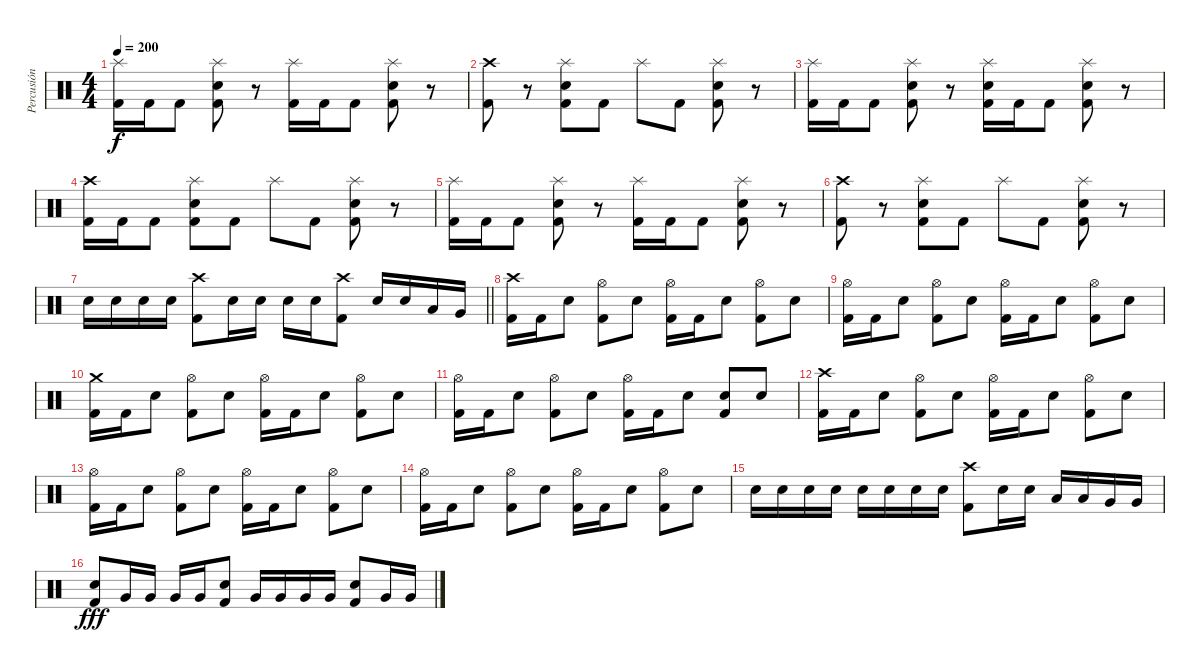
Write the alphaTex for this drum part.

\track ("Percusión" "Percusión") {instrument percussion}
\staff {score}
\articulation defaults
\ts (4 4)
\tempo 200
\clef neutral
\ks c
("Splash (hit)" "Kick (hit) 2").16{dy f} "Kick (hit) 2".16 "Kick (hit) 2".8 ("Splash (hit)" "Electric Snare (hit)" "Kick (hit) 2").8 r.8 ("Splash (hit)" "Kick (hit) 2").16 "Kick (hit) 2".16 "Kick (hit) 2".8 ("Splash (hit)" "Electric Snare (hit)" "Kick (hit) 2").8 r.8 |
("Crash high (hit)" "Kick (hit) 2").8 r.8 ("Splash (hit)" "Electric Snare (hit)" "Kick (hit) 2").8 "Kick (hit) 2".8 "Splash (hit)".8 "Kick (hit) 2".8 ("Splash (hit)" "Electric Snare (hit)" "Kick (hit) 2").8 r.8 |
("Splash (hit)" "Kick (hit) 2").16 "Kick (hit) 2".16 "Kick (hit) 2".8 ("Splash (hit)" "Electric Snare (hit)" "Kick (hit) 2").8 r.8 ("Splash (hit)" "Electric Snare (hit)" "Kick (hit) 2").16 "Kick (hit) 2".16 "Kick (hit) 2".8 ("Splash (hit)" "Electric Snare (hit)" "Kick (hit) 2").8 r.8 |
("Crash high (hit)" "Kick (hit) 2").16 "Kick (hit) 2".16 "Kick (hit) 2".8 ("Splash (hit)" "Electric Snare (hit)" "Kick (hit) 2").8 "Kick (hit) 2".8 "Splash (hit)".8 "Kick (hit) 2".8 ("Splash (hit)" "Electric Snare (hit)" "Kick (hit) 2").8 r.8 |
("Splash (hit)" "Kick (hit) 2").16 "Kick (hit) 2".16 "Kick (hit) 2".8 ("Splash (hit)" "Electric Snare (hit)" "Kick (hit) 2").8 r.8 ("Splash (hit)" "Kick (hit) 2").16 "Kick (hit) 2".16 "Kick (hit) 2".8 ("Splash (hit)" "Electric Snare (hit)" "Kick (hit) 2").8 r.8 |
("Crash high (hit)" "Kick (hit) 2").8 r.8 ("Splash (hit)" "Electric Snare (hit)" "Kick (hit) 2").8 "Kick (hit) 2".8 "Splash (hit)".8 "Kick (hit) 2".8 ("Splash (hit)" "Electric Snare (hit)" "Kick (hit) 2").8 r.8 |
\barLineRight lightlight "Electric Snare (hit)".16 "Electric Snare (hit)".16 "Electric Snare (hit)".16 "Electric Snare (hit)".16
("Crash high (hit)" "Kick (hit) 2").8 "Electric Snare (hit)".16 "Electric Snare (hit)".16 "Electric Snare (hit)".16 "Electric Snare (hit)".16 ("Crash high (hit)" "Kick (hit) 2").8 "Electric Snare (hit)".16 "Electric Snare (hit)".16 "Low Tom (hit)".16 "Very Low Tom (hit)".16 |
\section ("" "")
("Crash high (hit)" "Kick (hit) 2").16 "Kick (hit) 2".16 "Electric Snare (hit)".8 ("Hi-Hat (open)" "Kick (hit) 2").8 "Electric Snare (hit)".8 ("Hi-Hat (open)" "Kick (hit) 2").16 "Kick (hit) 2".16 "Electric Snare (hit)".8 ("Hi-Hat (open)" "Kick (hit) 2").8 "Electric Snare (hit)".8 |
("Hi-Hat (open)" "Kick (hit) 2").16 "Kick (hit) 2".16 "Electric Snare (hit)".8 ("Hi-Hat (open)" "Kick (hit) 2").8 "Electric Snare (hit)".8 ("Hi-Hat (open)" "Kick (hit) 2").16 "Kick (hit) 2".16 "Electric Snare (hit)".8 ("Hi-Hat (open)" "Kick (hit) 2").8 "Electric Snare (hit)".8 |
("Crash medium (hit)" "Kick (hit) 2").16 "Kick (hit) 2".16 "Electric Snare (hit)".8 ("Hi-Hat (open)" "Kick (hit) 2").8 "Electric Snare (hit)".8 ("Hi-Hat (open)" "Kick (hit) 2").16 "Kick (hit) 2".16 "Electric Snare (hit)".8 ("Hi-Hat (open)" "Kick (hit) 2").8 "Electric Snare (hit)".8 |
("Hi-Hat (open)" "Kick (hit) 2").16 "Kick (hit) 2".16 "Electric Snare (hit)".8 ("Hi-Hat (open)" "Kick (hit) 2").8 "Electric Snare (hit)".8 ("Hi-Hat (open)" "Kick (hit) 2").16 "Kick (hit) 2".16 "Electric Snare (hit)".8 ("Electric Snare (hit)" "Kick (hit) 2").8 "Electric Snare (hit)".8 |
("Crash high (hit)" "Kick (hit) 2").16 "Kick (hit) 2".16 "Electric Snare (hit)".8 ("Hi-Hat (open)" "Kick (hit) 2").8 "Electric Snare (hit)".8 ("Hi-Hat (open)" "Kick (hit) 2").16 "Kick (hit) 2".16 "Electric Snare (hit)".8 ("Hi-Hat (open)" "Kick (hit) 2").8 "Electric Snare (hit)".8 |
("Hi-Hat (open)" "Kick (hit) 2").16 "Kick (hit) 2".16 "Electric Snare (hit)".8 ("Hi-Hat (open)" "Kick (hit) 2").8 "Electric Snare (hit)".8 ("Hi-Hat (open)" "Kick (hit) 2").16 "Kick (hit) 2".16 "Electric Snare (hit)".8 ("Hi-Hat (open)" "Kick (hit) 2").8 "Electric Snare (hit)".8 |
("Hi-Hat (open)" "Kick (hit) 2").16 "Kick (hit) 2".16 "Electric Snare (hit)".8 ("Hi-Hat (open)" "Kick (hit) 2").8 "Electric Snare (hit)".8 ("Hi-Hat (open)" "Kick (hit) 2").16 "Kick (hit) 2".16 "Electric Snare (hit)".8 ("Hi-Hat (open)" "Kick (hit) 2").8 "Electric Snare (hit)".8 |
"Electric Snare (hit)".16 "Electric Snare (hit)".16 "Electric Snare (hit)".16 "Electric Snare (hit)".16 "Electric Snare (hit)".16 "Electric Snare (hit)".16 "Electric Snare (hit)".16 "Electric Snare (hit)".16 ("Crash high (hit)" "Kick (hit) 2").8 "Electric Snare (hit)".16 "Electric Snare (hit)".16 "Low Tom (hit)".16 "Low Tom (hit)".16 "Very Low Tom (hit)".16 "Very Low Tom (hit)".16 |
("Electric Snare (hit)" "Kick (hit) 2").8{dy fff} "Very Low Tom (hit)".16 "Very Low Tom (hit)".16 "Very Low Tom (hit)".16 "Very Low Tom (hit)".16 ("Electric Snare (hit)" "Kick (hit) 2").8 "Very Low Tom (hit)".16 "Very Low Tom (hit)".16 "Very Low Tom (hit)".16 "Very Low Tom (hit)".16 ("Electric Snare (hit)" "Kick (hit) 2").8 "Very Low Tom (hit)".16 "Very Low Tom (hit)".16
